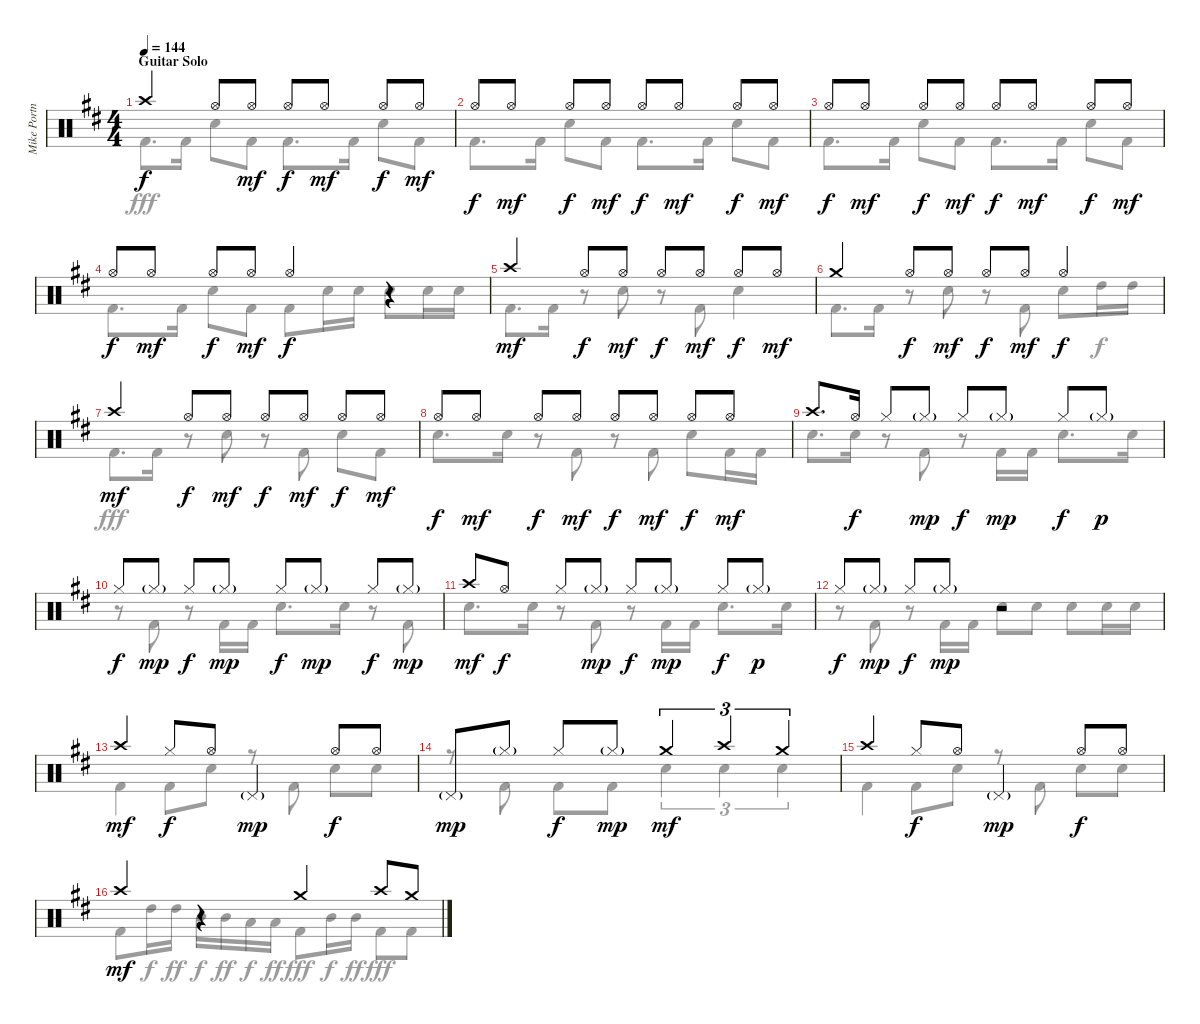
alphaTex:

\track ("Mike Portnoy Drums" "Mike Portn") {instrument percussion}
\staff {score}
\articulation defaults
\voice
\ts (4 4)
\section ("" "Guitar Solo")
\tempo 144
\clef neutral
\ks bminor "Crash high (hit)".4{dy f} "Hi-Hat (open)".8 "Hi-Hat (open)".8{dy mf} "Hi-Hat (open)".8{dy f} "Hi-Hat (open)".8{dy mf} "Hi-Hat (open)".8{dy f} "Hi-Hat (open)".8{dy mf}
|
"Hi-Hat (open)".8{dy f} "Hi-Hat (open)".8{dy mf} "Hi-Hat (open)".8{dy f} "Hi-Hat (open)".8{dy mf} "Hi-Hat (open)".8{dy f} "Hi-Hat (open)".8{dy mf} "Hi-Hat (open)".8{dy f} "Hi-Hat (open)".8{dy mf} |
"Hi-Hat (open)".8{dy f} "Hi-Hat (open)".8{dy mf} "Hi-Hat (open)".8{dy f} "Hi-Hat (open)".8{dy mf} "Hi-Hat (open)".8{dy f} "Hi-Hat (open)".8{dy mf} "Hi-Hat (open)".8{dy f} "Hi-Hat (open)".8{dy mf} |
"Hi-Hat (open)".8{dy f} "Hi-Hat (open)".8{dy mf} "Hi-Hat (open)".8{dy f} "Hi-Hat (open)".8{dy mf} "Hi-Hat (open)".4{dy f} r.4 |
"Crash high (hit)".4{dy mf} "Hi-Hat (open)".8{dy f} "Hi-Hat (open)".8{dy mf} "Hi-Hat (open)".8{dy f} "Hi-Hat (open)".8{dy mf} "Hi-Hat (open)".8{dy f} "Hi-Hat (open)".8{dy mf} |
"Crash medium (hit)".4 "Hi-Hat (open)".8{dy f} "Hi-Hat (open)".8{dy mf} "Hi-Hat (open)".8{dy f} "Hi-Hat (open)".8{dy mf} "Hi-Hat (open)".4{dy f} |
"Crash high (hit)".4{dy mf} "Hi-Hat (open)".8{dy f} "Hi-Hat (open)".8{dy mf} "Hi-Hat (open)".8{dy f} "Hi-Hat (open)".8{dy mf} "Hi-Hat (open)".8{dy f} "Hi-Hat (open)".8{dy mf} |
"Hi-Hat (open)".8{dy f} "Hi-Hat (open)".8{dy mf} "Hi-Hat (open)".8{dy f} "Hi-Hat (open)".8{dy mf} "Hi-Hat (open)".8{dy f} "Hi-Hat (open)".8{dy mf} "Hi-Hat (open)".8{dy f} "Hi-Hat (open)".8{dy mf} |
"Crash high (hit)".8{d} "Hi-Hat (open)".16{dy f} "Hi-Hat (closed)".8 "Hi-Hat (closed)"{g}.8{dy mp} "Hi-Hat (closed)".8{dy f} "Hi-Hat (closed)"{g}.8{dy mp} "Hi-Hat (closed)".8{dy f} "Hi-Hat (closed)"{g}.8{dy p} |
"Hi-Hat (closed)".8{dy f} "Hi-Hat (closed)"{g}.8{dy mp} "Hi-Hat (closed)".8{dy f} "Hi-Hat (closed)"{g}.8{dy mp} "Hi-Hat (closed)".8{dy f} "Hi-Hat (closed)"{g}.8{dy mp} "Hi-Hat (closed)".8{dy f} "Hi-Hat (closed)"{g}.8{dy mp} |
"Crash high (hit)".8{dy mf} "Hi-Hat (open)".8{dy f} "Hi-Hat (closed)".8 "Hi-Hat (closed)"{g}.8{dy mp} "Hi-Hat (closed)".8{dy f} "Hi-Hat (closed)"{g}.8{dy mp} "Hi-Hat (closed)".8{dy f} "Hi-Hat (closed)"{g}.8{dy p} |
"Hi-Hat (closed)".8{dy f} "Hi-Hat (closed)"{g}.8{dy mp} "Hi-Hat (closed)".8{dy f} "Hi-Hat (closed)"{g}.8{dy mp} r.2 |
"Crash high (hit)".4{dy mf} "Hi-Hat (closed)".8{dy f} "Hi-Hat (open)".8 "Pedal Hi-Hat (hit)"{g}.4{dy mp} "Hi-Hat (open)".8{dy f} "Hi-Hat (open)".8 |
"Pedal Hi-Hat (hit)"{g}.8{dy mp} "Hi-Hat (closed)"{g}.8 "Hi-Hat (closed)".8{dy f} "Hi-Hat (closed)"{g}.8{dy mp} "Crash medium (hit)".4{tu (3 2) dy mf} "Crash high (hit)".4{tu (3 2)} "Crash medium (hit)".4{tu (3 2)} |
"Crash high (hit)".4 "Hi-Hat (closed)".8{dy f} "Hi-Hat (open)".8 "Pedal Hi-Hat (hit)"{g}.4{dy mp} "Hi-Hat (open)".8{dy f} "Hi-Hat (open)".8 |
"Crash high (hit)".4{dy mf} r.4 "Crash medium (hit)".4 "Crash high (hit)".8 "Crash medium (hit)".8
\voice
\clef neutral
\ottava regular
\simile none
\ks bminor "Kick (hit) 2".8{d dy fff} "Kick (hit) 2".16 "Snare (hit) 2".8 "Kick (hit) 2".8 "Kick (hit) 2".8{d} "Kick (hit) 2".16 "Snare (hit) 2".8 "Kick (hit) 2".8
|
"Kick (hit) 2".8{d} "Kick (hit) 2".16 "Snare (hit) 2".8 "Kick (hit) 2".8 "Kick (hit) 2".8{d} "Kick (hit) 2".16 "Snare (hit) 2".8 "Kick (hit) 2".8 |
"Kick (hit) 2".8{d} "Kick (hit) 2".16 "Snare (hit) 2".8 "Kick (hit) 2".8 "Kick (hit) 2".8{d} "Kick (hit) 2".16 "Snare (hit) 2".8 "Kick (hit) 2".8 |
"Kick (hit) 2".8{d} "Kick (hit) 2".16 "Snare (hit) 2".8 "Kick (hit) 2".8 "Kick (hit) 2".8 "Snare (hit) 2".16 "Snare (hit) 2".16 "Snare (hit) 2".8 "Snare (hit) 2".16 "Snare (hit) 2".16 |
"Kick (hit) 2".8{d} "Kick (hit) 2".16 r.8 "Snare (hit) 2".8 r.8 "Kick (hit) 2".8 "Snare (hit) 2".4 |
"Kick (hit) 2".8{d} "Kick (hit) 2".16 r.8 "Snare (hit) 2".8 r.8 "Kick (hit) 2".8 "Snare (hit) 2".8 "High Tom (hit)".16{dy f} "High Tom (hit)".16 |
"Kick (hit) 2".8{d dy fff} "Kick (hit) 2".16 r.8 "Snare (hit) 2".8 r.8 "Kick (hit) 2".8 "Snare (hit) 2".8 "Kick (hit) 2".8 |
"Snare (hit) 2".8{d} "Snare (hit) 2".16 r.8 "Kick (hit) 2".8 r.8 "Kick (hit) 2".8 "Snare (hit) 2".8 "Kick (hit) 2".16 "Kick (hit) 2".16 |
"Snare (hit) 2".8{d} "Snare (hit) 2".16 r.8 "Kick (hit) 2".8 r.8 "Kick (hit) 2".16 "Kick (hit) 2".16 "Snare (hit) 2".8{d} "Snare (hit) 2".16 |
r.8 "Kick (hit) 2".8 r.8 "Kick (hit) 2".16 "Kick (hit) 2".16 "Snare (hit) 2".8{d} "Snare (hit) 2".16 r.8 "Kick (hit) 2".8 |
"Snare (hit) 2".8{d} "Snare (hit) 2".16 r.8 "Kick (hit) 2".8 r.8 "Kick (hit) 2".16 "Kick (hit) 2".16 "Snare (hit) 2".8{d} "Snare (hit) 2".16 |
r.8 "Kick (hit) 2".8 r.8 "Kick (hit) 2".16 "Kick (hit) 2".16 "Snare (hit) 2".8 "Snare (hit) 2".8 "Snare (hit) 2".8 "Snare (hit) 2".16 "Snare (hit) 2".16 |
"Kick (hit) 2".4 "Kick (hit) 2".8 "Snare (hit) 2".8 r.8 "Kick (hit) 2".8 "Snare (hit) 2".8 "Snare (hit) 2".8 |
r.8 "Kick (hit) 2".8 "Kick (hit) 2".8 "Kick (hit) 2".8 "Snare (hit) 2".4{tu (3 2)} "Snare (hit) 2".4{tu (3 2)} "Snare (hit) 2".4{tu (3 2)} |
"Kick (hit) 2".4 "Kick (hit) 2".8 "Snare (hit) 2".8 r.8 "Kick (hit) 2".8 "Snare (hit) 2".8 "Snare (hit) 2".8 |
"Kick (hit) 2".8 "High Tom (hit)".16{dy f} "High Tom (hit)".16{dy ff} "Mid Tom (hit)".16{dy f} "Mid Tom (hit)".16{dy ff} "Low Tom (hit)".16{dy f} "Low Tom (hit)".16{dy ff} "Kick (hit) 2".8{dy fff} "Mid Tom (hit)".16{dy f} "Mid Tom (hit)".16{dy ff} "Kick (hit) 2".8{dy fff} "Kick (hit) 2".8
